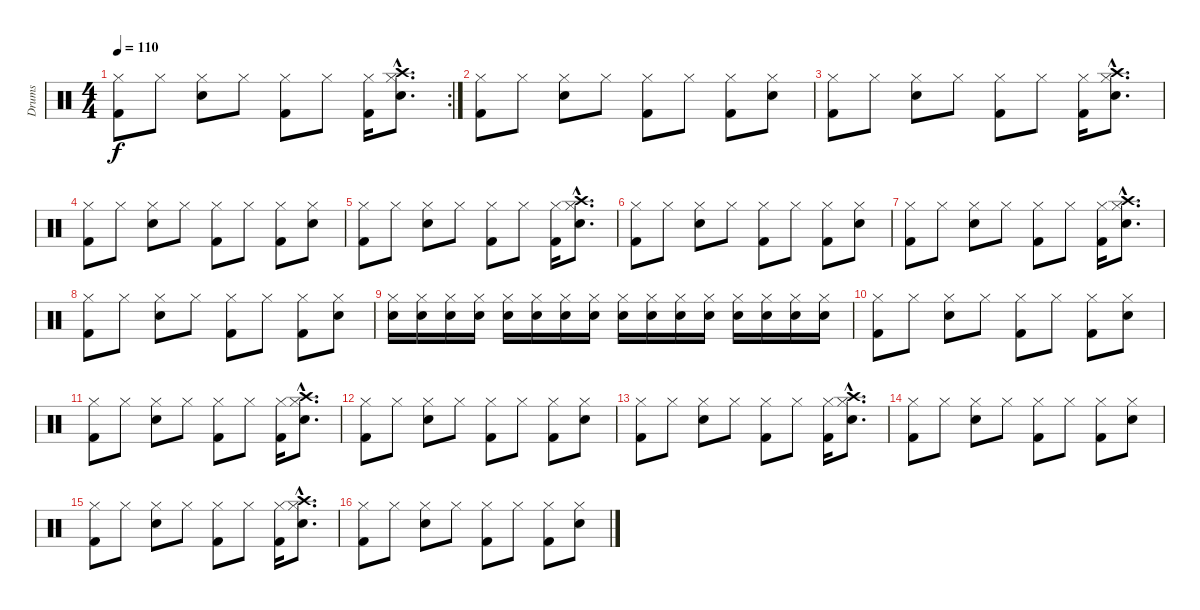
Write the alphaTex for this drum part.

\track ("Drums" "Drums") {instrument percussion}
\staff {score}
\articulation defaults
\rc 2
\ts (4 4)
\tempo 110
\clef neutral
\ks c
("Kick (hit) 2" "Hi-Hat (closed)").8{dy f} "Hi-Hat (closed)".8 ("Snare (hit) 2" "Hi-Hat (closed)").8 "Hi-Hat (closed)".8 ("Kick (hit) 2" "Hi-Hat (closed)").8 "Hi-Hat (closed)".8 ("Kick (hit) 2" "Hi-Hat (closed)").16 ("Snare (hit) 2"{hac} "Hi-Hat (closed)"{hac} "Crash high (hit)"{hac}).8{d} |
("Kick (hit) 2" "Hi-Hat (closed)").8 "Hi-Hat (closed)".8 ("Snare (hit) 2" "Hi-Hat (closed)").8 "Hi-Hat (closed)".8 ("Kick (hit) 2" "Hi-Hat (closed)").8 "Hi-Hat (closed)".8 ("Kick (hit) 2" "Hi-Hat (closed)").8 ("Snare (hit) 2" "Hi-Hat (closed)").8 |
("Kick (hit) 2" "Hi-Hat (closed)").8 "Hi-Hat (closed)".8 ("Snare (hit) 2" "Hi-Hat (closed)").8 "Hi-Hat (closed)".8 ("Kick (hit) 2" "Hi-Hat (closed)").8 "Hi-Hat (closed)".8 ("Kick (hit) 2" "Hi-Hat (closed)").16 ("Snare (hit) 2"{hac} "Hi-Hat (closed)"{hac} "Crash high (hit)"{hac}).8{d} |
("Kick (hit) 2" "Hi-Hat (closed)").8 "Hi-Hat (closed)".8 ("Snare (hit) 2" "Hi-Hat (closed)").8 "Hi-Hat (closed)".8 ("Kick (hit) 2" "Hi-Hat (closed)").8 "Hi-Hat (closed)".8 ("Kick (hit) 2" "Hi-Hat (closed)").8 ("Snare (hit) 2" "Hi-Hat (closed)").8 |
("Kick (hit) 2" "Hi-Hat (closed)").8 "Hi-Hat (closed)".8 ("Snare (hit) 2" "Hi-Hat (closed)").8 "Hi-Hat (closed)".8 ("Kick (hit) 2" "Hi-Hat (closed)").8 "Hi-Hat (closed)".8 ("Kick (hit) 2" "Hi-Hat (closed)").16 ("Snare (hit) 2"{hac} "Hi-Hat (closed)"{hac} "Crash high (hit)"{hac}).8{d} |
("Kick (hit) 2" "Hi-Hat (closed)").8 "Hi-Hat (closed)".8 ("Snare (hit) 2" "Hi-Hat (closed)").8 "Hi-Hat (closed)".8 ("Kick (hit) 2" "Hi-Hat (closed)").8 "Hi-Hat (closed)".8 ("Kick (hit) 2" "Hi-Hat (closed)").8 ("Snare (hit) 2" "Hi-Hat (closed)").8 |
("Kick (hit) 2" "Hi-Hat (closed)").8 "Hi-Hat (closed)".8 ("Snare (hit) 2" "Hi-Hat (closed)").8 "Hi-Hat (closed)".8 ("Kick (hit) 2" "Hi-Hat (closed)").8 "Hi-Hat (closed)".8 ("Kick (hit) 2" "Hi-Hat (closed)").16 ("Snare (hit) 2"{hac} "Hi-Hat (closed)"{hac} "Crash high (hit)"{hac}).8{d} |
("Kick (hit) 2" "Hi-Hat (closed)").8 "Hi-Hat (closed)".8 ("Snare (hit) 2" "Hi-Hat (closed)").8 "Hi-Hat (closed)".8 ("Kick (hit) 2" "Hi-Hat (closed)").8 "Hi-Hat (closed)".8 ("Kick (hit) 2" "Hi-Hat (closed)").8 ("Snare (hit) 2" "Hi-Hat (closed)").8 |
("Electric Snare (hit)" "Hi-Hat (closed)").16 ("Electric Snare (hit)" "Hi-Hat (closed)").16 ("Electric Snare (hit)" "Hi-Hat (closed)").16 ("Electric Snare (hit)" "Hi-Hat (closed)").16 ("Electric Snare (hit)" "Hi-Hat (closed)").16 ("Electric Snare (hit)" "Hi-Hat (closed)").16 ("Electric Snare (hit)" "Hi-Hat (closed)").16 ("Electric Snare (hit)" "Hi-Hat (closed)").16 ("Electric Snare (hit)" "Hi-Hat (closed)").16 ("Electric Snare (hit)" "Hi-Hat (closed)").16 ("Electric Snare (hit)" "Hi-Hat (closed)").16 ("Electric Snare (hit)" "Hi-Hat (closed)").16 ("Electric Snare (hit)" "Hi-Hat (closed)").16 ("Electric Snare (hit)" "Hi-Hat (closed)").16 ("Electric Snare (hit)" "Hi-Hat (closed)").16 ("Electric Snare (hit)" "Hi-Hat (closed)").16 |
("Kick (hit) 2" "Hi-Hat (closed)").8 "Hi-Hat (closed)".8 ("Snare (hit) 2" "Hi-Hat (closed)").8 "Hi-Hat (closed)".8 ("Kick (hit) 2" "Hi-Hat (closed)").8 "Hi-Hat (closed)".8 ("Kick (hit) 2" "Hi-Hat (closed)").8 ("Snare (hit) 2" "Hi-Hat (closed)").8 |
("Kick (hit) 2" "Hi-Hat (closed)").8 "Hi-Hat (closed)".8 ("Snare (hit) 2" "Hi-Hat (closed)").8 "Hi-Hat (closed)".8 ("Kick (hit) 2" "Hi-Hat (closed)").8 "Hi-Hat (closed)".8 ("Kick (hit) 2" "Hi-Hat (closed)").16 ("Snare (hit) 2"{hac} "Hi-Hat (closed)"{hac} "Crash high (hit)"{hac}).8{d} |
("Kick (hit) 2" "Hi-Hat (closed)").8 "Hi-Hat (closed)".8 ("Snare (hit) 2" "Hi-Hat (closed)").8 "Hi-Hat (closed)".8 ("Kick (hit) 2" "Hi-Hat (closed)").8 "Hi-Hat (closed)".8 ("Kick (hit) 2" "Hi-Hat (closed)").8 ("Snare (hit) 2" "Hi-Hat (closed)").8 |
("Kick (hit) 2" "Hi-Hat (closed)").8 "Hi-Hat (closed)".8 ("Snare (hit) 2" "Hi-Hat (closed)").8 "Hi-Hat (closed)".8 ("Kick (hit) 2" "Hi-Hat (closed)").8 "Hi-Hat (closed)".8 ("Kick (hit) 2" "Hi-Hat (closed)").16 ("Snare (hit) 2"{hac} "Hi-Hat (closed)"{hac} "Crash high (hit)"{hac}).8{d} |
("Kick (hit) 2" "Hi-Hat (closed)").8 "Hi-Hat (closed)".8 ("Snare (hit) 2" "Hi-Hat (closed)").8 "Hi-Hat (closed)".8 ("Kick (hit) 2" "Hi-Hat (closed)").8 "Hi-Hat (closed)".8 ("Kick (hit) 2" "Hi-Hat (closed)").8 ("Snare (hit) 2" "Hi-Hat (closed)").8 |
("Kick (hit) 2" "Hi-Hat (closed)").8 "Hi-Hat (closed)".8 ("Snare (hit) 2" "Hi-Hat (closed)").8 "Hi-Hat (closed)".8 ("Kick (hit) 2" "Hi-Hat (closed)").8 "Hi-Hat (closed)".8 ("Kick (hit) 2" "Hi-Hat (closed)").16 ("Snare (hit) 2"{hac} "Hi-Hat (closed)"{hac} "Crash high (hit)"{hac}).8{d} |
("Kick (hit) 2" "Hi-Hat (closed)").8 "Hi-Hat (closed)".8 ("Snare (hit) 2" "Hi-Hat (closed)").8 "Hi-Hat (closed)".8 ("Kick (hit) 2" "Hi-Hat (closed)").8 "Hi-Hat (closed)".8 ("Kick (hit) 2" "Hi-Hat (closed)").8 ("Snare (hit) 2" "Hi-Hat (closed)").8
